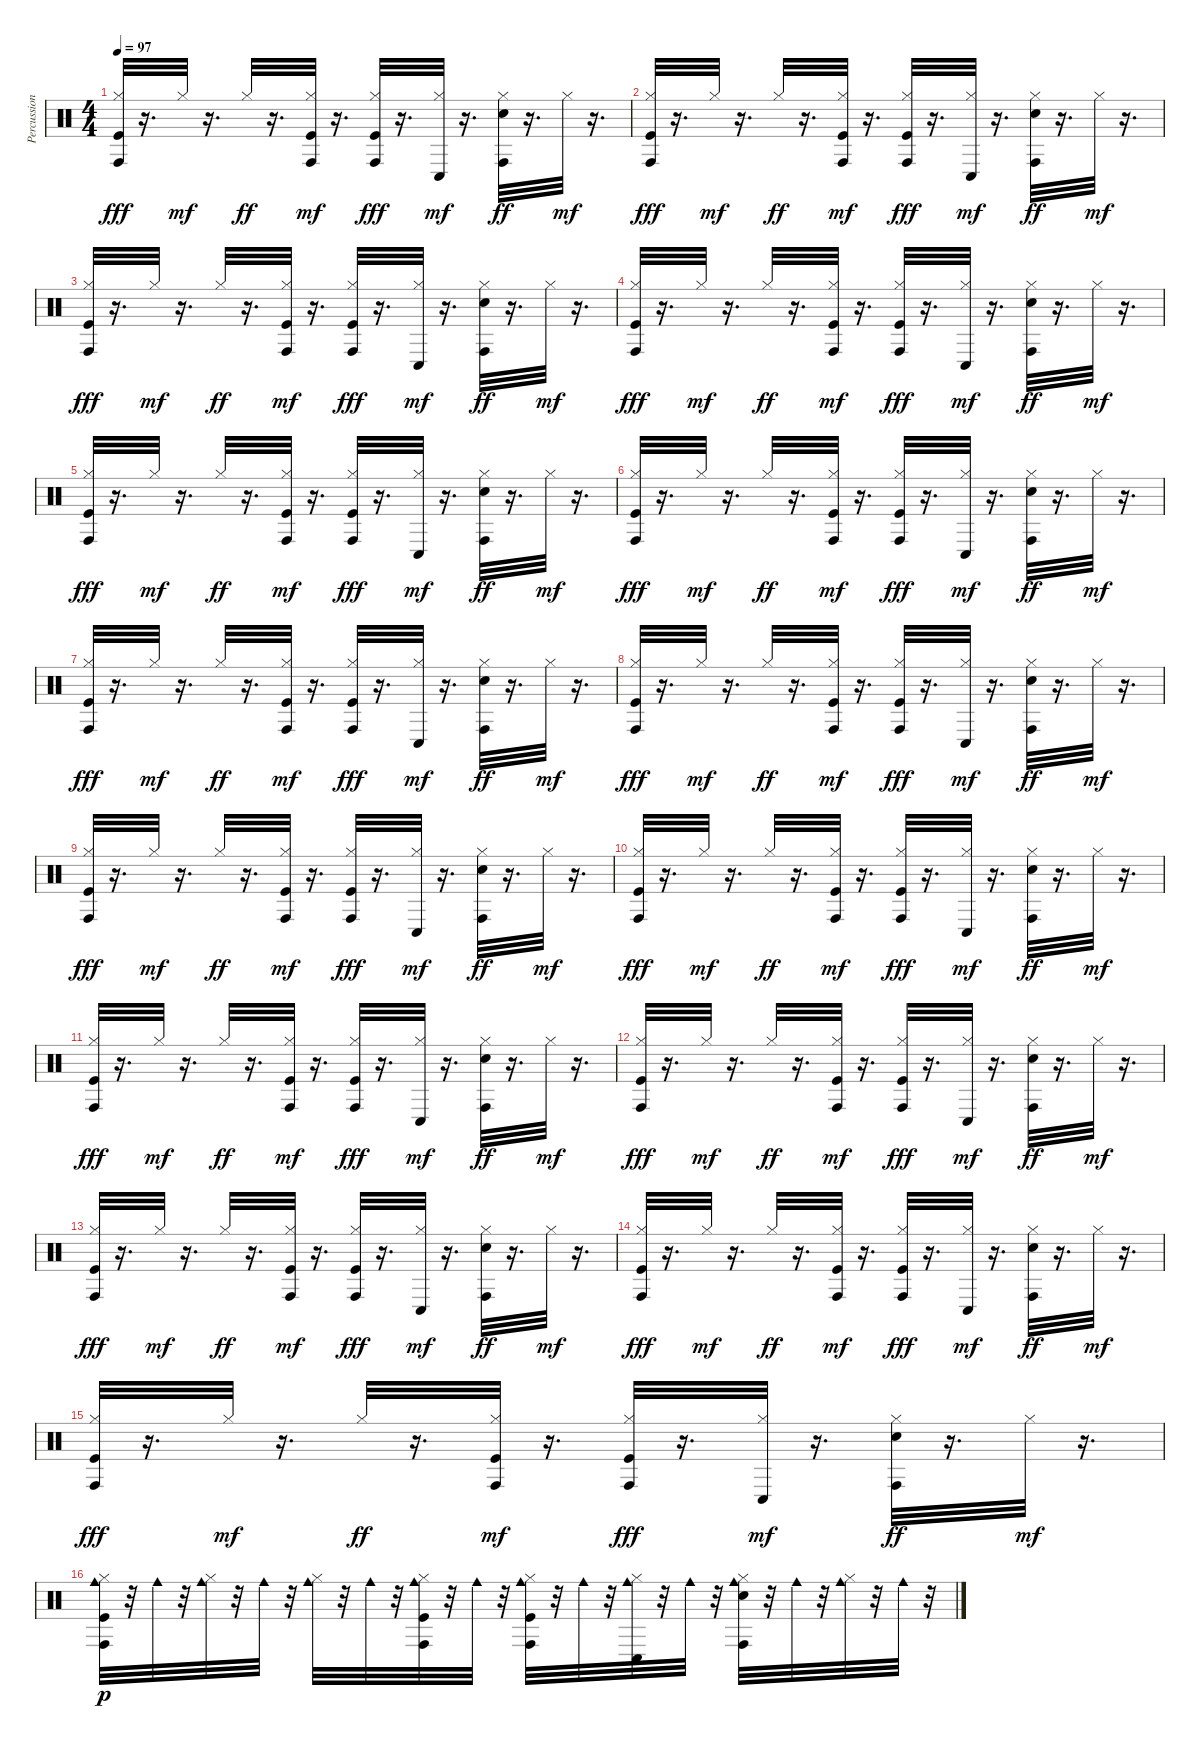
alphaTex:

\track ("Percussion" "Percussion") {instrument percussion}
\staff {score}
\articulation defaults
\ts (4 4)
\tempo 97
\clef neutral
\ks c
("Kick (hit)" "Hi-Hat (closed)" "Conga high (hit)").32{dy fff} r.16{d} "Hi-Hat (closed)".32{dy mf} r.16{d} "Hi-Hat (closed)".32{dy ff} r.16{d} ("Kick (hit)" "Hi-Hat (closed)" "Conga high (hit)").32{dy mf} r.16{d} ("Kick (hit)" "Hi-Hat (closed)" "Conga high (hit)").32{dy fff} r.16{d} ("Conga low (hit)" "Hi-Hat (closed)").32{dy mf} r.16{d} ("Conga high (hit)" "Snare (hit) 2" "Hi-Hat (closed)").32{dy ff} r.16{d} "Hi-Hat (closed)".32{dy mf} r.16{d} |
("Kick (hit)" "Hi-Hat (closed)" "Conga high (hit)").32{dy fff} r.16{d} "Hi-Hat (closed)".32{dy mf} r.16{d} "Hi-Hat (closed)".32{dy ff} r.16{d} ("Kick (hit)" "Hi-Hat (closed)" "Conga high (hit)").32{dy mf} r.16{d} ("Kick (hit)" "Hi-Hat (closed)" "Conga high (hit)").32{dy fff} r.16{d} ("Conga low (hit)" "Hi-Hat (closed)").32{dy mf} r.16{d} ("Conga high (hit)" "Snare (hit) 2" "Hi-Hat (closed)").32{dy ff} r.16{d} "Hi-Hat (closed)".32{dy mf} r.16{d} |
("Kick (hit)" "Hi-Hat (closed)" "Conga high (hit)").32{dy fff} r.16{d} "Hi-Hat (closed)".32{dy mf} r.16{d} "Hi-Hat (closed)".32{dy ff} r.16{d} ("Kick (hit)" "Hi-Hat (closed)" "Conga high (hit)").32{dy mf} r.16{d} ("Kick (hit)" "Hi-Hat (closed)" "Conga high (hit)").32{dy fff} r.16{d} ("Conga low (hit)" "Hi-Hat (closed)").32{dy mf} r.16{d} ("Conga high (hit)" "Snare (hit) 2" "Hi-Hat (closed)").32{dy ff} r.16{d} "Hi-Hat (closed)".32{dy mf} r.16{d} |
("Kick (hit)" "Hi-Hat (closed)" "Conga high (hit)").32{dy fff} r.16{d} "Hi-Hat (closed)".32{dy mf} r.16{d} "Hi-Hat (closed)".32{dy ff} r.16{d} ("Kick (hit)" "Hi-Hat (closed)" "Conga high (hit)").32{dy mf} r.16{d} ("Kick (hit)" "Hi-Hat (closed)" "Conga high (hit)").32{dy fff} r.16{d} ("Conga low (hit)" "Hi-Hat (closed)").32{dy mf} r.16{d} ("Conga high (hit)" "Snare (hit) 2" "Hi-Hat (closed)").32{dy ff} r.16{d} "Hi-Hat (closed)".32{dy mf} r.16{d} |
("Kick (hit)" "Hi-Hat (closed)" "Conga high (hit)").32{dy fff} r.16{d} "Hi-Hat (closed)".32{dy mf} r.16{d} "Hi-Hat (closed)".32{dy ff} r.16{d} ("Kick (hit)" "Hi-Hat (closed)" "Conga high (hit)").32{dy mf} r.16{d} ("Kick (hit)" "Hi-Hat (closed)" "Conga high (hit)").32{dy fff} r.16{d} ("Conga low (hit)" "Hi-Hat (closed)").32{dy mf} r.16{d} ("Conga high (hit)" "Snare (hit) 2" "Hi-Hat (closed)").32{dy ff} r.16{d} "Hi-Hat (closed)".32{dy mf} r.16{d} |
("Kick (hit)" "Hi-Hat (closed)" "Conga high (hit)").32{dy fff} r.16{d} "Hi-Hat (closed)".32{dy mf} r.16{d} "Hi-Hat (closed)".32{dy ff} r.16{d} ("Kick (hit)" "Hi-Hat (closed)" "Conga high (hit)").32{dy mf} r.16{d} ("Kick (hit)" "Hi-Hat (closed)" "Conga high (hit)").32{dy fff} r.16{d} ("Conga low (hit)" "Hi-Hat (closed)").32{dy mf} r.16{d} ("Conga high (hit)" "Snare (hit) 2" "Hi-Hat (closed)").32{dy ff} r.16{d} "Hi-Hat (closed)".32{dy mf} r.16{d} |
("Kick (hit)" "Hi-Hat (closed)" "Conga high (hit)").32{dy fff} r.16{d} "Hi-Hat (closed)".32{dy mf} r.16{d} "Hi-Hat (closed)".32{dy ff} r.16{d} ("Kick (hit)" "Hi-Hat (closed)" "Conga high (hit)").32{dy mf} r.16{d} ("Kick (hit)" "Hi-Hat (closed)" "Conga high (hit)").32{dy fff} r.16{d} ("Conga low (hit)" "Hi-Hat (closed)").32{dy mf} r.16{d} ("Conga high (hit)" "Snare (hit) 2" "Hi-Hat (closed)").32{dy ff} r.16{d} "Hi-Hat (closed)".32{dy mf} r.16{d} |
("Kick (hit)" "Hi-Hat (closed)" "Conga high (hit)").32{dy fff} r.16{d} "Hi-Hat (closed)".32{dy mf} r.16{d} "Hi-Hat (closed)".32{dy ff} r.16{d} ("Kick (hit)" "Hi-Hat (closed)" "Conga high (hit)").32{dy mf} r.16{d} ("Kick (hit)" "Hi-Hat (closed)" "Conga high (hit)").32{dy fff} r.16{d} ("Conga low (hit)" "Hi-Hat (closed)").32{dy mf} r.16{d} ("Conga high (hit)" "Snare (hit) 2" "Hi-Hat (closed)").32{dy ff} r.16{d} "Hi-Hat (closed)".32{dy mf} r.16{d} |
("Kick (hit)" "Hi-Hat (closed)" "Conga high (hit)").32{dy fff} r.16{d} "Hi-Hat (closed)".32{dy mf} r.16{d} "Hi-Hat (closed)".32{dy ff} r.16{d} ("Kick (hit)" "Hi-Hat (closed)" "Conga high (hit)").32{dy mf} r.16{d} ("Kick (hit)" "Hi-Hat (closed)" "Conga high (hit)").32{dy fff} r.16{d} ("Conga low (hit)" "Hi-Hat (closed)").32{dy mf} r.16{d} ("Conga high (hit)" "Snare (hit) 2" "Hi-Hat (closed)").32{dy ff} r.16{d} "Hi-Hat (closed)".32{dy mf} r.16{d} |
("Kick (hit)" "Hi-Hat (closed)" "Conga high (hit)").32{dy fff} r.16{d} "Hi-Hat (closed)".32{dy mf} r.16{d} "Hi-Hat (closed)".32{dy ff} r.16{d} ("Kick (hit)" "Hi-Hat (closed)" "Conga high (hit)").32{dy mf} r.16{d} ("Kick (hit)" "Hi-Hat (closed)" "Conga high (hit)").32{dy fff} r.16{d} ("Conga low (hit)" "Hi-Hat (closed)").32{dy mf} r.16{d} ("Conga high (hit)" "Snare (hit) 2" "Hi-Hat (closed)").32{dy ff} r.16{d} "Hi-Hat (closed)".32{dy mf} r.16{d} |
("Kick (hit)" "Hi-Hat (closed)" "Conga high (hit)").32{dy fff} r.16{d} "Hi-Hat (closed)".32{dy mf} r.16{d} "Hi-Hat (closed)".32{dy ff} r.16{d} ("Kick (hit)" "Hi-Hat (closed)" "Conga high (hit)").32{dy mf} r.16{d} ("Kick (hit)" "Hi-Hat (closed)" "Conga high (hit)").32{dy fff} r.16{d} ("Conga low (hit)" "Hi-Hat (closed)").32{dy mf} r.16{d} ("Conga high (hit)" "Snare (hit) 2" "Hi-Hat (closed)").32{dy ff} r.16{d} "Hi-Hat (closed)".32{dy mf} r.16{d} |
("Kick (hit)" "Hi-Hat (closed)" "Conga high (hit)").32{dy fff} r.16{d} "Hi-Hat (closed)".32{dy mf} r.16{d} "Hi-Hat (closed)".32{dy ff} r.16{d} ("Kick (hit)" "Hi-Hat (closed)" "Conga high (hit)").32{dy mf} r.16{d} ("Kick (hit)" "Hi-Hat (closed)" "Conga high (hit)").32{dy fff} r.16{d} ("Conga low (hit)" "Hi-Hat (closed)").32{dy mf} r.16{d} ("Conga high (hit)" "Snare (hit) 2" "Hi-Hat (closed)").32{dy ff} r.16{d} "Hi-Hat (closed)".32{dy mf} r.16{d} |
("Kick (hit)" "Hi-Hat (closed)" "Conga high (hit)").32{dy fff} r.16{d} "Hi-Hat (closed)".32{dy mf} r.16{d} "Hi-Hat (closed)".32{dy ff} r.16{d} ("Kick (hit)" "Hi-Hat (closed)" "Conga high (hit)").32{dy mf} r.16{d} ("Kick (hit)" "Hi-Hat (closed)" "Conga high (hit)").32{dy fff} r.16{d} ("Conga low (hit)" "Hi-Hat (closed)").32{dy mf} r.16{d} ("Conga high (hit)" "Snare (hit) 2" "Hi-Hat (closed)").32{dy ff} r.16{d} "Hi-Hat (closed)".32{dy mf} r.16{d} |
("Kick (hit)" "Hi-Hat (closed)" "Conga high (hit)").32{dy fff} r.16{d} "Hi-Hat (closed)".32{dy mf} r.16{d} "Hi-Hat (closed)".32{dy ff} r.16{d} ("Kick (hit)" "Hi-Hat (closed)" "Conga high (hit)").32{dy mf} r.16{d} ("Kick (hit)" "Hi-Hat (closed)" "Conga high (hit)").32{dy fff} r.16{d} ("Conga low (hit)" "Hi-Hat (closed)").32{dy mf} r.16{d} ("Conga high (hit)" "Snare (hit) 2" "Hi-Hat (closed)").32{dy ff} r.16{d} "Hi-Hat (closed)".32{dy mf} r.16{d} |
("Kick (hit)" "Hi-Hat (closed)" "Conga high (hit)").32{dy fff} r.16{d} "Hi-Hat (closed)".32{dy mf} r.16{d} "Hi-Hat (closed)".32{dy ff} r.16{d} ("Kick (hit)" "Hi-Hat (closed)" "Conga high (hit)").32{dy mf} r.16{d} ("Kick (hit)" "Hi-Hat (closed)" "Conga high (hit)").32{dy fff} r.16{d} ("Conga low (hit)" "Hi-Hat (closed)").32{dy mf} r.16{d} ("Conga high (hit)" "Snare (hit) 2" "Hi-Hat (closed)").32{dy ff} r.16{d} "Hi-Hat (closed)".32{dy mf} r.16{d} |
("Kick (hit)" "Hi-Hat (closed)" "Cowbell medium (hit)" "Conga high (hit)").32{dy p} r.32 "Cowbell medium (hit)".32 r.32 ("Hi-Hat (closed)" "Cowbell medium (hit)").32 r.32 "Cowbell medium (hit)".32 r.32 ("Hi-Hat (closed)" "Cowbell medium (hit)").32 r.32 "Cowbell medium (hit)".32 r.32 ("Kick (hit)" "Hi-Hat (closed)" "Cowbell medium (hit)" "Conga high (hit)").32 r.32 "Cowbell medium (hit)".32 r.32 ("Kick (hit)" "Hi-Hat (closed)" "Cowbell medium (hit)" "Conga high (hit)").32 r.32 "Cowbell medium (hit)".32 r.32 ("Conga low (hit)" "Hi-Hat (closed)" "Cowbell medium (hit)").32 r.32 "Cowbell medium (hit)".32 r.32 ("Conga high (hit)" "Snare (hit) 2" "Hi-Hat (closed)" "Cowbell medium (hit)").32 r.32 "Cowbell medium (hit)".32 r.32 ("Hi-Hat (closed)" "Cowbell medium (hit)").32 r.32 "Cowbell medium (hit)".32 r.32
